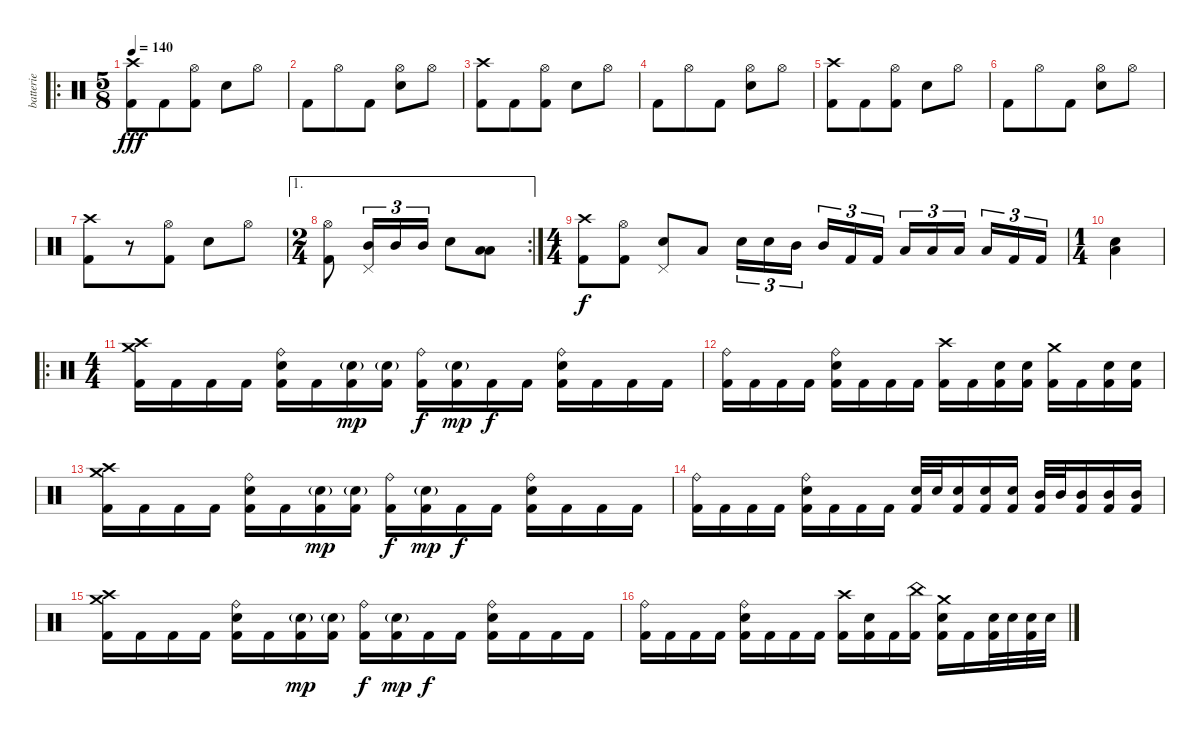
\track ("batterie" "batterie") {instrument percussion}
\staff {score}
\articulation defaults
\ro
\ts (5 8)
\tempo 140
\clef neutral
\ks c
("Crash high (hit)" "Kick (hit) 2").8{dy fff} "Kick (hit) 2".8 ("Hi-Hat (open)" "Kick (hit) 2").8 "Electric Snare (hit)".8 "Hi-Hat (open)".8 |
"Kick (hit) 2".8 "Hi-Hat (open)".8 "Kick (hit) 2".8 ("Hi-Hat (open)" "Electric Snare (hit)").8 "Hi-Hat (open)".8 |
("Crash high (hit)" "Kick (hit) 2").8 "Kick (hit) 2".8 ("Hi-Hat (open)" "Kick (hit) 2").8 "Electric Snare (hit)".8 "Hi-Hat (open)".8 |
"Kick (hit) 2".8 "Hi-Hat (open)".8 "Kick (hit) 2".8 ("Hi-Hat (open)" "Electric Snare (hit)").8 "Hi-Hat (open)".8 |
("Crash high (hit)" "Kick (hit) 2").8 "Kick (hit) 2".8 ("Hi-Hat (open)" "Kick (hit) 2").8 "Electric Snare (hit)".8 "Hi-Hat (open)".8 |
"Kick (hit) 2".8 "Hi-Hat (open)".8 "Kick (hit) 2".8 ("Hi-Hat (open)" "Electric Snare (hit)").8 "Hi-Hat (open)".8 |
("Crash high (hit)" "Kick (hit) 2").8 r.8 ("Hi-Hat (open)" "Kick (hit) 2").8 "Electric Snare (hit)".8 "Hi-Hat (open)".8 |
\ae 1
\rc 2
\ts (2 4)
("Hi-Hat (open)" "Kick (hit) 2").8 ("Mid Tom (hit)" "Pedal Hi-Hat (hit)").16{tu (3 2)} "Mid Tom (hit)".16{tu (3 2)} "Mid Tom (hit)".16{tu (3 2)} "Electric Snare (hit)".8 ("Low Tom (hit)" "Low Floor Tom (hit)").8 |
\ts (4 4)
("Crash high (hit)" "Kick (hit) 2").8{dy f} ("Hi-Hat (open)" "Kick (hit) 2").8 ("Electric Snare (hit)" "Pedal Hi-Hat (hit)").8 "Low Floor Tom (hit)".8 "Electric Snare (hit)".16{tu (3 2)} "Electric Snare (hit)".16{tu (3 2)} "Mid Tom (hit)".16{tu (3 2)} "Mid Tom (hit)".16{tu (3 2)} "Kick (hit) 2".16{tu (3 2)} "Kick (hit) 2".16{tu (3 2)} "Low Tom (hit)".16{tu (3 2)} "Low Tom (hit)".16{tu (3 2)} "Low Floor Tom (hit)".16{tu (3 2)} "Low Floor Tom (hit)".16{tu (3 2)} "Kick (hit) 2".16{tu (3 2)} "Kick (hit) 2".16{tu (3 2)} |
\ts (1 4)
("Electric Snare (hit)" "Low Floor Tom (hit)").4 |
\ro
\ts (4 4)
("Crash high (hit)" "Crash medium (hit)" "Kick (hit) 2").16 "Kick (hit) 2".16 "Kick (hit) 2".16 "Kick (hit) 2".16 ("Ride (bell)" "Electric Snare (hit)" "Kick (hit) 2").16 "Kick (hit) 2".16 ("Electric Snare (hit)"{g} "Kick (hit) 2").16{dy mp} ("Electric Snare (hit)"{g} "Kick (hit) 2").16 ("Ride (bell)" "Kick (hit) 2").16{dy f} ("Electric Snare (hit)"{g} "Kick (hit) 2").16{dy mp} "Kick (hit) 2".16{dy f} "Kick (hit) 2".16 ("Ride (bell)" "Electric Snare (hit)" "Kick (hit) 2").16 "Kick (hit) 2".16 "Kick (hit) 2".16 "Kick (hit) 2".16 |
("Ride (bell)" "Kick (hit) 2").16 "Kick (hit) 2".16 "Kick (hit) 2".16 "Kick (hit) 2".16 ("Ride (bell)" "Electric Snare (hit)" "Kick (hit) 2").16 "Kick (hit) 2".16 "Kick (hit) 2".16 "Kick (hit) 2".16 ("Crash high (hit)" "Kick (hit) 2").16 "Kick (hit) 2".16 ("Electric Snare (hit)" "Kick (hit) 2").16 ("Electric Snare (hit)" "Kick (hit) 2").16 ("Crash medium (hit)" "Kick (hit) 2").16 "Kick (hit) 2".16 ("Electric Snare (hit)" "Kick (hit) 2").16 ("Electric Snare (hit)" "Kick (hit) 2").16 |
("Crash high (hit)" "Crash medium (hit)" "Kick (hit) 2").16 "Kick (hit) 2".16 "Kick (hit) 2".16 "Kick (hit) 2".16 ("Ride (bell)" "Electric Snare (hit)" "Kick (hit) 2").16 "Kick (hit) 2".16 ("Electric Snare (hit)"{g} "Kick (hit) 2").16{dy mp} ("Electric Snare (hit)"{g} "Kick (hit) 2").16 ("Ride (bell)" "Kick (hit) 2").16{dy f} ("Electric Snare (hit)"{g} "Kick (hit) 2").16{dy mp} "Kick (hit) 2".16{dy f} "Kick (hit) 2".16 ("Ride (bell)" "Electric Snare (hit)" "Kick (hit) 2").16 "Kick (hit) 2".16 "Kick (hit) 2".16 "Kick (hit) 2".16 |
("Ride (bell)" "Kick (hit) 2").16 "Kick (hit) 2".16 "Kick (hit) 2".16 "Kick (hit) 2".16 ("Ride (bell)" "Electric Snare (hit)" "Kick (hit) 2").16 "Kick (hit) 2".16 "Kick (hit) 2".16 "Kick (hit) 2".16 ("Electric Snare (hit)" "Kick (hit) 2").32 "Electric Snare (hit)".32 ("Electric Snare (hit)" "Kick (hit) 2").16 ("Electric Snare (hit)" "Kick (hit) 2").16 ("Electric Snare (hit)" "Kick (hit) 2").16 ("Mid Tom (hit)" "Kick (hit) 2").32 "Mid Tom (hit)".32 ("Mid Tom (hit)" "Kick (hit) 2").16 ("Mid Tom (hit)" "Kick (hit) 2").16 ("Mid Tom (hit)" "Kick (hit) 2").16 |
("Crash high (hit)" "Crash medium (hit)" "Kick (hit) 2").16 "Kick (hit) 2".16 "Kick (hit) 2".16 "Kick (hit) 2".16 ("Ride (bell)" "Electric Snare (hit)" "Kick (hit) 2").16 "Kick (hit) 2".16 ("Electric Snare (hit)"{g} "Kick (hit) 2").16{dy mp} ("Electric Snare (hit)"{g} "Kick (hit) 2").16 ("Ride (bell)" "Kick (hit) 2").16{dy f} ("Electric Snare (hit)"{g} "Kick (hit) 2").16{dy mp} "Kick (hit) 2".16{dy f} "Kick (hit) 2".16 ("Ride (bell)" "Electric Snare (hit)" "Kick (hit) 2").16 "Kick (hit) 2".16 "Kick (hit) 2".16 "Kick (hit) 2".16 |
("Ride (bell)" "Kick (hit) 2").16 "Kick (hit) 2".16 "Kick (hit) 2".16 "Kick (hit) 2".16 ("Ride (bell)" "Electric Snare (hit)" "Kick (hit) 2").16 "Kick (hit) 2".16 "Kick (hit) 2".16 "Kick (hit) 2".16 ("Crash high (hit)" "Kick (hit) 2").16 ("Electric Snare (hit)" "Kick (hit) 2").16 "Kick (hit) 2".16 ("China (hit)" "Kick (hit) 2").16 ("Crash medium (hit)" "Electric Snare (hit)" "Kick (hit) 2").16 "Kick (hit) 2".16 ("Electric Snare (hit)" "Kick (hit) 2").32 "Electric Snare (hit)".32 ("Electric Snare (hit)" "Kick (hit) 2").32 "Electric Snare (hit)".32
